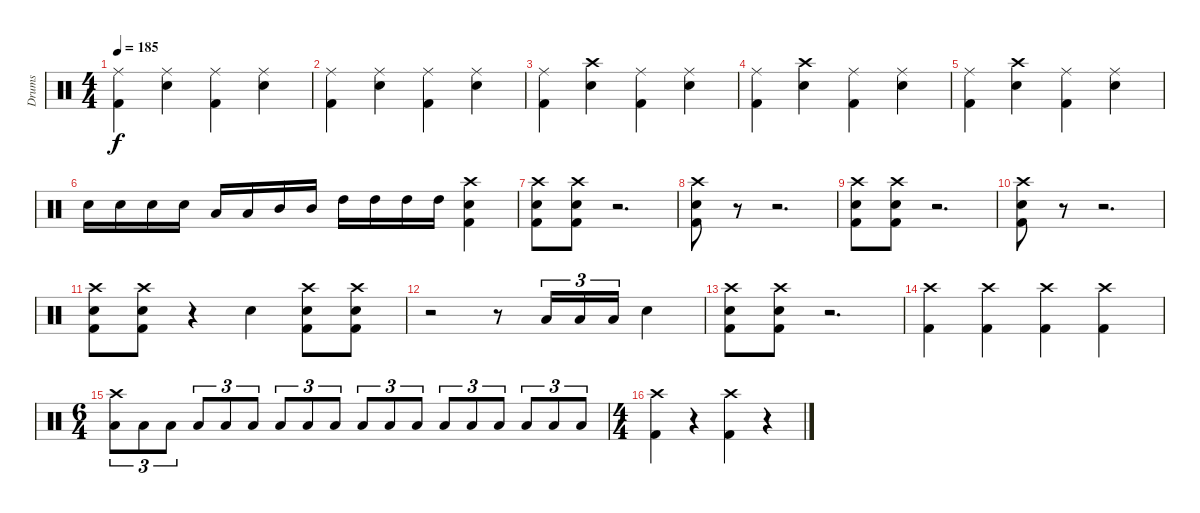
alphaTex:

\track ("Drums" "Drums") {instrument percussion}
\staff {score}
\articulation defaults
\ts (4 4)
\tempo 185
\clef neutral
\ks c
("Kick (hit) 2" "Ride (middle)").4{dy f} ("Snare (hit) 2" "Ride (middle)").4 ("Kick (hit) 2" "Ride (middle)").4 ("Snare (hit) 2" "Ride (middle)").4 |
("Kick (hit) 2" "Ride (middle)").4 ("Snare (hit) 2" "Ride (middle)").4 ("Kick (hit) 2" "Ride (middle)").4 ("Snare (hit) 2" "Ride (middle)").4 |
("Kick (hit) 2" "Ride (middle)").4 ("Snare (hit) 2" "Crash high (hit)").4 ("Kick (hit) 2" "Ride (middle)").4 ("Snare (hit) 2" "Ride (middle)").4 |
("Kick (hit) 2" "Ride (middle)").4 ("Snare (hit) 2" "Crash high (hit)").4 ("Kick (hit) 2" "Ride (middle)").4 ("Snare (hit) 2" "Ride (middle)").4 |
("Kick (hit) 2" "Ride (middle)").4 ("Snare (hit) 2" "Crash high (hit)").4 ("Kick (hit) 2" "Ride (middle)").4 ("Snare (hit) 2" "Ride (middle)").4 |
"Snare (hit) 2".16 "Snare (hit) 2".16 "Snare (hit) 2".16 "Snare (hit) 2".16 "Low Floor Tom (hit)".16 "Low Floor Tom (hit)".16 "Mid Tom (hit)".16 "Mid Tom (hit)".16 "High Tom (hit)".16 "High Tom (hit)".16 "High Tom (hit)".16 "High Tom (hit)".16 ("Crash high (hit)" "Snare (hit) 2" "Kick (hit) 2").4 |
("Crash high (hit)" "Snare (hit) 2" "Kick (hit) 2").8 ("Crash high (hit)" "Snare (hit) 2" "Kick (hit) 2").8 r.2{d} |
("Crash high (hit)" "Snare (hit) 2" "Kick (hit) 2").8 r.8 r.2{d} |
("Crash high (hit)" "Snare (hit) 2" "Kick (hit) 2").8 ("Crash high (hit)" "Snare (hit) 2" "Kick (hit) 2").8 r.2{d} |
("Crash high (hit)" "Snare (hit) 2" "Kick (hit) 2").8 r.8 r.2{d} |
("Crash high (hit)" "Snare (hit) 2" "Kick (hit) 2").8 ("Crash high (hit)" "Snare (hit) 2" "Kick (hit) 2").8 r.4 "Snare (hit) 2".4 ("Crash high (hit)" "Snare (hit) 2" "Kick (hit) 2").8 ("Crash high (hit)" "Snare (hit) 2" "Kick (hit) 2").8 |
r.2 r.8 "Low Floor Tom (hit)".16{tu (3 2)} "Low Floor Tom (hit)".16{tu (3 2)} "Low Floor Tom (hit)".16{tu (3 2)} "Snare (hit) 2".4 |
("Crash high (hit)" "Snare (hit) 2" "Kick (hit) 2").8 ("Crash high (hit)" "Snare (hit) 2" "Kick (hit) 2").8 r.2{d} |
("Crash high (hit)" "Kick (hit) 2").4 ("Crash high (hit)" "Kick (hit) 2").4 ("Crash high (hit)" "Kick (hit) 2").4 ("Crash high (hit)" "Kick (hit) 2").4 |
\ts (6 4)
("Crash high (hit)" "Low Tom (hit)").8{tu (3 2)} "Low Tom (hit)".8{tu (3 2)} "Low Tom (hit)".8{tu (3 2)} "Low Tom (hit)".8{tu (3 2)} "Low Tom (hit)".8{tu (3 2)} "Low Tom (hit)".8{tu (3 2)} "Low Tom (hit)".8{tu (3 2)} "Low Tom (hit)".8{tu (3 2)} "Low Tom (hit)".8{tu (3 2)} "Low Tom (hit)".8{tu (3 2)} "Low Tom (hit)".8{tu (3 2)} "Low Tom (hit)".8{tu (3 2)} "Low Tom (hit)".8{tu (3 2)} "Low Tom (hit)".8{tu (3 2)} "Low Tom (hit)".8{tu (3 2)} "Low Tom (hit)".8{tu (3 2)} "Low Tom (hit)".8{tu (3 2)} "Low Tom (hit)".8{tu (3 2)} |
\ts (4 4)
("Crash high (hit)" "Kick (hit) 2").4 r.4 ("Crash high (hit)" "Kick (hit) 2").4 r.4
